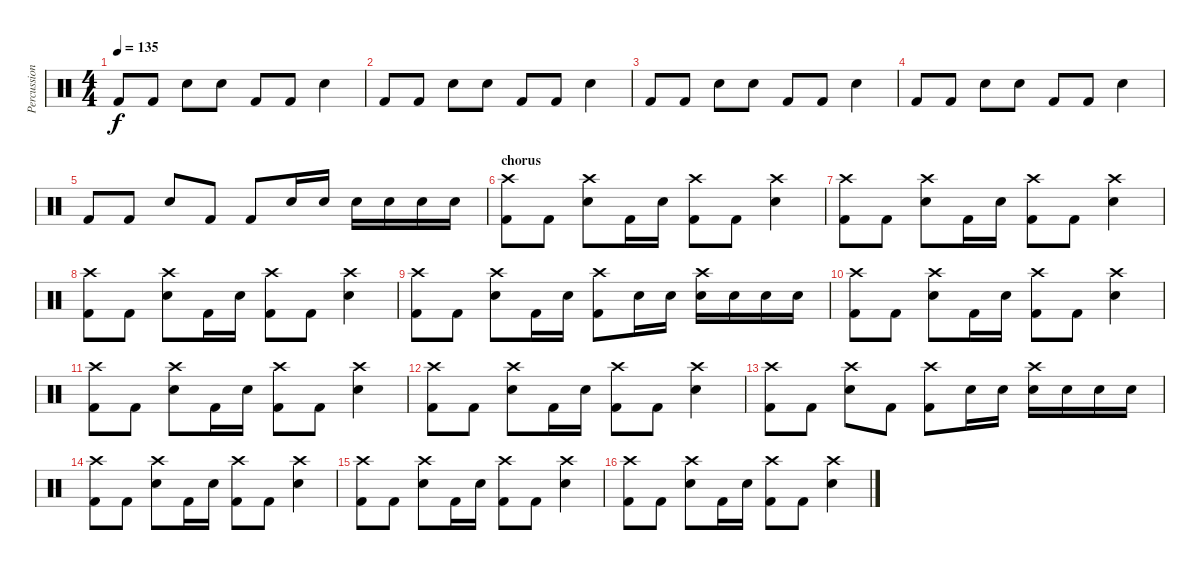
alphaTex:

\track ("Percussion" "Percussion") {instrument percussion}
\staff {score}
\articulation defaults
\ts (4 4)
\tempo 135
\clef neutral
\ks c "Kick (hit) 2".8{dy f} "Kick (hit) 2".8 "Snare (hit) 2".8 "Snare (hit) 2".8 "Kick (hit) 2".8 "Kick (hit) 2".8 "Snare (hit) 2".4
|
"Kick (hit) 2".8 "Kick (hit) 2".8 "Snare (hit) 2".8 "Snare (hit) 2".8 "Kick (hit) 2".8 "Kick (hit) 2".8 "Snare (hit) 2".4 |
"Kick (hit) 2".8 "Kick (hit) 2".8 "Snare (hit) 2".8 "Snare (hit) 2".8 "Kick (hit) 2".8 "Kick (hit) 2".8 "Snare (hit) 2".4 |
"Kick (hit) 2".8 "Kick (hit) 2".8 "Snare (hit) 2".8 "Snare (hit) 2".8 "Kick (hit) 2".8 "Kick (hit) 2".8 "Snare (hit) 2".4 |
"Kick (hit) 2".8 "Kick (hit) 2".8 "Snare (hit) 2".8 "Kick (hit) 2".8 "Kick (hit) 2".8 "Snare (hit) 2".16 "Snare (hit) 2".16 "Snare (hit) 2".16 "Snare (hit) 2".16 "Snare (hit) 2".16 "Snare (hit) 2".16 |
\section ("" "chorus")
("Kick (hit) 2" "Crash high (hit)").8 "Kick (hit) 2".8 ("Snare (hit) 2" "Crash high (hit)").8 "Kick (hit) 2".16 "Snare (hit) 2".16 ("Kick (hit) 2" "Crash high (hit)").8 "Kick (hit) 2".8 ("Snare (hit) 2" "Crash high (hit)").4 |
("Kick (hit) 2" "Crash high (hit)").8 "Kick (hit) 2".8 ("Snare (hit) 2" "Crash high (hit)").8 "Kick (hit) 2".16 "Snare (hit) 2".16 ("Kick (hit) 2" "Crash high (hit)").8 "Kick (hit) 2".8 ("Snare (hit) 2" "Crash high (hit)").4 |
("Kick (hit) 2" "Crash high (hit)").8 "Kick (hit) 2".8 ("Snare (hit) 2" "Crash high (hit)").8 "Kick (hit) 2".16 "Snare (hit) 2".16 ("Kick (hit) 2" "Crash high (hit)").8 "Kick (hit) 2".8 ("Snare (hit) 2" "Crash high (hit)").4 |
("Kick (hit) 2" "Crash high (hit)").8 "Kick (hit) 2".8 ("Snare (hit) 2" "Crash high (hit)").8 "Kick (hit) 2".16 "Snare (hit) 2".16 ("Kick (hit) 2" "Crash high (hit)").8 "Snare (hit) 2".16 "Snare (hit) 2".16 ("Snare (hit) 2" "Crash high (hit)").16 "Snare (hit) 2".16 "Snare (hit) 2".16 "Snare (hit) 2".16 |
("Kick (hit) 2" "Crash high (hit)").8 "Kick (hit) 2".8 ("Snare (hit) 2" "Crash high (hit)").8 "Kick (hit) 2".16 "Snare (hit) 2".16 ("Kick (hit) 2" "Crash high (hit)").8 "Kick (hit) 2".8 ("Snare (hit) 2" "Crash high (hit)").4 |
("Kick (hit) 2" "Crash high (hit)").8 "Kick (hit) 2".8 ("Snare (hit) 2" "Crash high (hit)").8 "Kick (hit) 2".16 "Snare (hit) 2".16 ("Kick (hit) 2" "Crash high (hit)").8 "Kick (hit) 2".8 ("Snare (hit) 2" "Crash high (hit)").4 |
("Kick (hit) 2" "Crash high (hit)").8 "Kick (hit) 2".8 ("Snare (hit) 2" "Crash high (hit)").8 "Kick (hit) 2".16 "Snare (hit) 2".16 ("Kick (hit) 2" "Crash high (hit)").8 "Kick (hit) 2".8 ("Snare (hit) 2" "Crash high (hit)").4 |
("Kick (hit) 2" "Crash high (hit)").8 "Kick (hit) 2".8 ("Snare (hit) 2" "Crash high (hit)").8 "Kick (hit) 2".8 ("Kick (hit) 2" "Crash high (hit)").8 "Snare (hit) 2".16 "Snare (hit) 2".16 ("Snare (hit) 2" "Crash high (hit)").16 "Snare (hit) 2".16 "Snare (hit) 2".16 "Snare (hit) 2".16 |
("Kick (hit) 2" "Crash high (hit)").8 "Kick (hit) 2".8 ("Snare (hit) 2" "Crash high (hit)").8 "Kick (hit) 2".16 "Snare (hit) 2".16 ("Kick (hit) 2" "Crash high (hit)").8 "Kick (hit) 2".8 ("Snare (hit) 2" "Crash high (hit)").4 |
("Kick (hit) 2" "Crash high (hit)").8 "Kick (hit) 2".8 ("Snare (hit) 2" "Crash high (hit)").8 "Kick (hit) 2".16 "Snare (hit) 2".16 ("Kick (hit) 2" "Crash high (hit)").8 "Kick (hit) 2".8 ("Snare (hit) 2" "Crash high (hit)").4 |
("Kick (hit) 2" "Crash high (hit)").8 "Kick (hit) 2".8 ("Snare (hit) 2" "Crash high (hit)").8 "Kick (hit) 2".16 "Snare (hit) 2".16 ("Kick (hit) 2" "Crash high (hit)").8 "Kick (hit) 2".8 ("Snare (hit) 2" "Crash high (hit)").4
